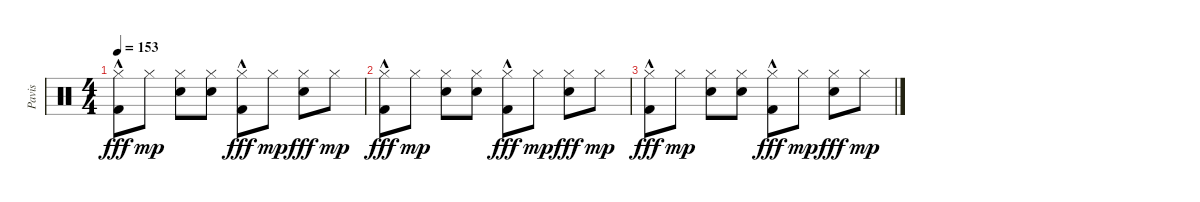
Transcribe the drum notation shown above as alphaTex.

\track ("Pavis" "Pavis") {instrument percussion}
\staff {score}
\articulation defaults
\ts (4 4)
\tempo 153
\clef neutral
\ks c
("Hi-Hat (closed)" "Kick (hit) 2"{hac}).8{dy fff} "Hi-Hat (closed)".8{dy mp} ("Hi-Hat (closed)" "Electric Snare (hit)").8 ("Hi-Hat (closed)" "Electric Snare (hit)").8 ("Hi-Hat (closed)" "Kick (hit) 2"{hac}).8{dy fff} "Hi-Hat (closed)".8{dy mp} ("Hi-Hat (closed)" "Electric Snare (hit)").8{dy fff} "Hi-Hat (closed)".8{dy mp} |
("Hi-Hat (closed)" "Kick (hit) 2"{hac}).8{dy fff} "Hi-Hat (closed)".8{dy mp} ("Hi-Hat (closed)" "Electric Snare (hit)").8 ("Hi-Hat (closed)" "Electric Snare (hit)").8 ("Hi-Hat (closed)" "Kick (hit) 2"{hac}).8{dy fff} "Hi-Hat (closed)".8{dy mp} ("Hi-Hat (closed)" "Electric Snare (hit)").8{dy fff} "Hi-Hat (closed)".8{dy mp} |
("Hi-Hat (closed)" "Kick (hit) 2"{hac}).8{dy fff} "Hi-Hat (closed)".8{dy mp} ("Hi-Hat (closed)" "Electric Snare (hit)").8 ("Hi-Hat (closed)" "Electric Snare (hit)").8 ("Hi-Hat (closed)" "Kick (hit) 2"{hac}).8{dy fff} "Hi-Hat (closed)".8{dy mp} ("Hi-Hat (closed)" "Electric Snare (hit)").8{dy fff} "Hi-Hat (closed)".8{dy mp}
